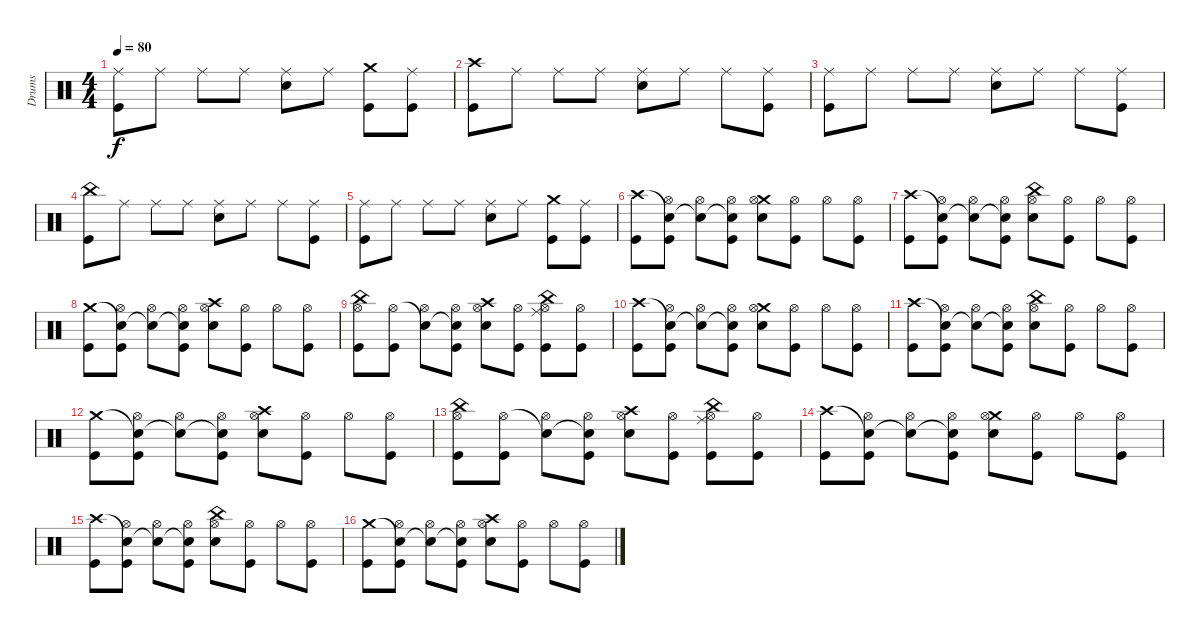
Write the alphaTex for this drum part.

\track ("Drums" "Drums") {instrument percussion}
\staff {score}
\articulation defaults
\ts (4 4)
\tempo 80
\clef neutral
\ks c
("Ride (middle)" "Kick (hit)").8{dy f} "Ride (middle)".8 "Ride (middle)".8 "Ride (middle)".8 ("Ride (middle)" "Electric Snare (hit)").8 "Ride (middle)".8 ("Crash medium (hit)" "Kick (hit)").8 ("Ride (middle)" "Kick (hit)").8 |
("Crash high (hit)" "Kick (hit)").8 "Ride (middle)".8 "Ride (middle)".8 "Ride (middle)".8 ("Ride (middle)" "Electric Snare (hit)").8 "Ride (middle)".8 "Ride (middle)".8 ("Ride (middle)" "Kick (hit)").8 |
("Ride (middle)" "Kick (hit)").8 "Ride (middle)".8 "Ride (middle)".8 "Ride (middle)".8 ("Ride (middle)" "Electric Snare (hit)").8 "Ride (middle)".8 "Ride (middle)".8 ("Ride (middle)" "Kick (hit)").8 |
("China (hit)" "Kick (hit)").8 "Ride (middle)".8 "Ride (middle)".8 "Ride (middle)".8 ("Ride (middle)" "Electric Snare (hit)").8 "Ride (middle)".8 "Ride (middle)".8 ("Ride (middle)" "Kick (hit)").8 |
("Ride (middle)" "Kick (hit)").8 "Ride (middle)".8 "Ride (middle)".8 "Ride (middle)".8 ("Ride (middle)" "Electric Snare (hit)").8 "Ride (middle)".8 ("Crash medium (hit)" "Kick (hit)").8 ("Ride (middle)" "Kick (hit)").8 |
("Crash high (hit)" "Kick (hit)").8 ("Snare (hit)"{t} "Hi-Hat (open)" "Kick (hit)").8 ("Snare (hit)"{t} "Hi-Hat (open)").8 ("Snare (hit)"{t} "Hi-Hat (open)" "Kick (hit)").8 ("Crash medium (hit)" "Hi-Hat (open)" "Electric Snare (hit)").8 ("Hi-Hat (open)" "Kick (hit)").8 "Hi-Hat (open)".8 ("Hi-Hat (open)" "Kick (hit)").8 |
("Crash high (hit)" "Kick (hit)").8 ("Snare (hit)"{t} "Hi-Hat (open)" "Kick (hit)").8 ("Snare (hit)"{t} "Hi-Hat (open)").8 ("Snare (hit)"{t} "Hi-Hat (open)" "Kick (hit)").8 ("China (hit)" "Hi-Hat (open)" "Electric Snare (hit)").8 ("Hi-Hat (open)" "Kick (hit)").8 "Hi-Hat (open)".8 ("Hi-Hat (open)" "Kick (hit)").8 |
("Crash medium (hit)" "Kick (hit)").8 ("Snare (hit)"{t} "Hi-Hat (open)" "Kick (hit)").8 ("Snare (hit)"{t} "Hi-Hat (open)").8 ("Snare (hit)"{t} "Hi-Hat (open)" "Kick (hit)").8 ("Crash high (hit)" "Hi-Hat (open)" "Electric Snare (hit)").8 ("Hi-Hat (open)" "Kick (hit)").8 "Hi-Hat (open)".8 ("Hi-Hat (open)" "Kick (hit)").8 |
("China (hit)" "Hi-Hat (open)" "Kick (hit)").8 ("Hi-Hat (open)" "Kick (hit)").8 ("Snare (hit)"{t} "Hi-Hat (open)").8 ("Snare (hit)"{t} "Hi-Hat (open)" "Kick (hit)").8 ("Crash high (hit)" "Hi-Hat (open)" "Electric Snare (hit)").8 ("Hi-Hat (open)" "Kick (hit)").8 ("China (hit)" "Hi-Hat (open)" "Ride (middle)" "Kick (hit)").8 ("Hi-Hat (open)" "Kick (hit)").8 |
("Crash high (hit)" "Kick (hit)").8 ("Snare (hit)"{t} "Hi-Hat (open)" "Kick (hit)").8 ("Snare (hit)"{t} "Hi-Hat (open)").8 ("Snare (hit)"{t} "Hi-Hat (open)" "Kick (hit)").8 ("Crash medium (hit)" "Hi-Hat (open)" "Electric Snare (hit)").8 ("Hi-Hat (open)" "Kick (hit)").8 "Hi-Hat (open)".8 ("Hi-Hat (open)" "Kick (hit)").8 |
("Crash high (hit)" "Kick (hit)").8 ("Snare (hit)"{t} "Hi-Hat (open)" "Kick (hit)").8 ("Snare (hit)"{t} "Hi-Hat (open)").8 ("Snare (hit)"{t} "Hi-Hat (open)" "Kick (hit)").8 ("China (hit)" "Hi-Hat (open)" "Electric Snare (hit)").8 ("Hi-Hat (open)" "Kick (hit)").8 "Hi-Hat (open)".8 ("Hi-Hat (open)" "Kick (hit)").8 |
("Crash medium (hit)" "Kick (hit)").8 ("Snare (hit)"{t} "Hi-Hat (open)" "Kick (hit)").8 ("Snare (hit)"{t} "Hi-Hat (open)").8 ("Snare (hit)"{t} "Hi-Hat (open)" "Kick (hit)").8 ("Crash high (hit)" "Hi-Hat (open)" "Electric Snare (hit)").8 ("Hi-Hat (open)" "Kick (hit)").8 "Hi-Hat (open)".8 ("Hi-Hat (open)" "Kick (hit)").8 |
("China (hit)" "Hi-Hat (open)" "Kick (hit)").8 ("Hi-Hat (open)" "Kick (hit)").8 ("Snare (hit)"{t} "Hi-Hat (open)").8 ("Snare (hit)"{t} "Hi-Hat (open)" "Kick (hit)").8 ("Crash high (hit)" "Hi-Hat (open)" "Electric Snare (hit)").8 ("Hi-Hat (open)" "Kick (hit)").8 ("China (hit)" "Hi-Hat (open)" "Ride (middle)" "Kick (hit)").8 ("Hi-Hat (open)" "Kick (hit)").8 |
("Crash high (hit)" "Kick (hit)").8 ("Snare (hit)"{t} "Hi-Hat (open)" "Kick (hit)").8 ("Snare (hit)"{t} "Hi-Hat (open)").8 ("Snare (hit)"{t} "Hi-Hat (open)" "Kick (hit)").8 ("Crash medium (hit)" "Hi-Hat (open)" "Electric Snare (hit)").8 ("Hi-Hat (open)" "Kick (hit)").8 "Hi-Hat (open)".8 ("Hi-Hat (open)" "Kick (hit)").8 |
("Crash high (hit)" "Kick (hit)").8 ("Snare (hit)"{t} "Hi-Hat (open)" "Kick (hit)").8 ("Snare (hit)"{t} "Hi-Hat (open)").8 ("Snare (hit)"{t} "Hi-Hat (open)" "Kick (hit)").8 ("China (hit)" "Hi-Hat (open)" "Electric Snare (hit)").8 ("Hi-Hat (open)" "Kick (hit)").8 "Hi-Hat (open)".8 ("Hi-Hat (open)" "Kick (hit)").8 |
("Crash medium (hit)" "Kick (hit)").8 ("Snare (hit)"{t} "Hi-Hat (open)" "Kick (hit)").8 ("Snare (hit)"{t} "Hi-Hat (open)").8 ("Snare (hit)"{t} "Hi-Hat (open)" "Kick (hit)").8 ("Crash high (hit)" "Hi-Hat (open)" "Electric Snare (hit)").8 ("Hi-Hat (open)" "Kick (hit)").8 "Hi-Hat (open)".8 ("Hi-Hat (open)" "Kick (hit)").8
